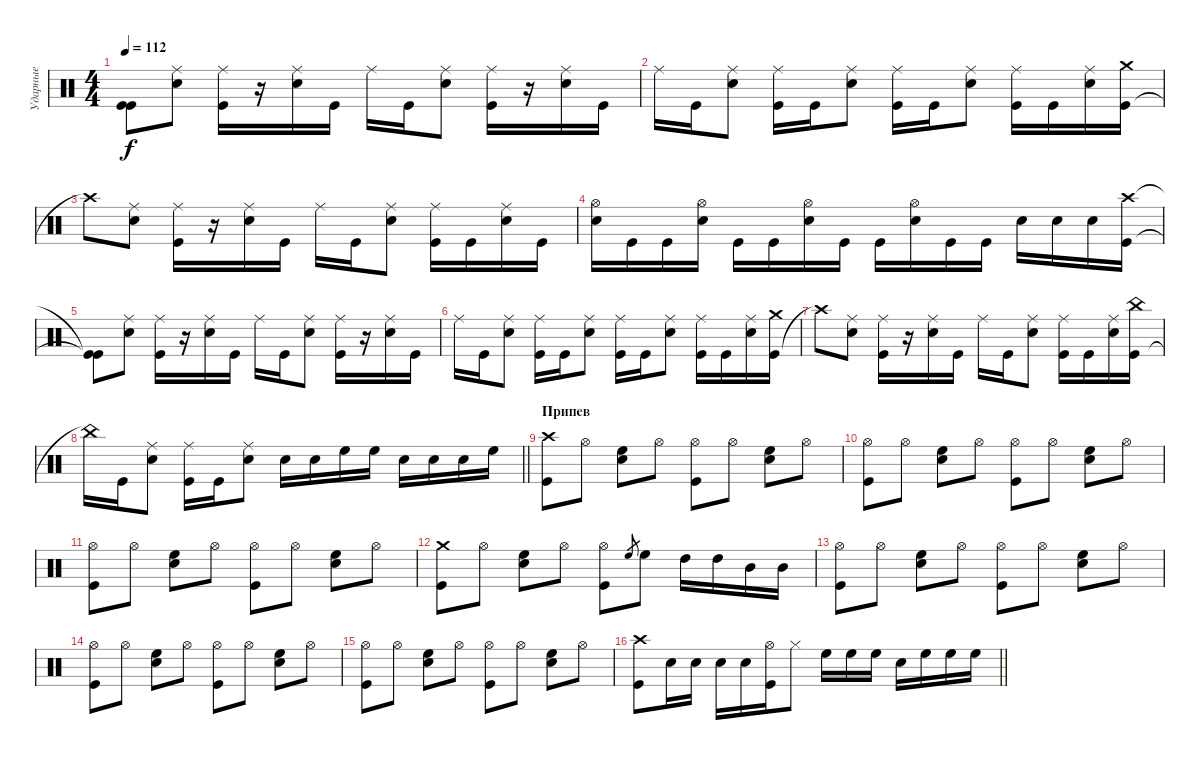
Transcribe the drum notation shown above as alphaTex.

\track ("Ударные" "Ударные") {instrument percussion}
\staff {score}
\articulation defaults
\ts (4 4)
\tempo 112
\clef neutral
\ks aminor
("Kick (hit)"{t} "Kick (hit)"{t}).8{dy f} ("Electric Snare (hit)" "Ride (middle)").8 ("Kick (hit)" "Ride (middle)").16 r.16 ("Electric Snare (hit)" "Ride (middle)").16 "Kick (hit)".16 "Ride (middle)".16 "Kick (hit)".16 ("Electric Snare (hit)" "Ride (middle)").8 ("Kick (hit)" "Ride (middle)").16 r.16 ("Electric Snare (hit)" "Ride (middle)").16 "Kick (hit)".16 |
"Ride (middle)".16 "Kick (hit)".16 ("Electric Snare (hit)" "Ride (middle)").8 ("Kick (hit)" "Ride (middle)").16 "Kick (hit)".16 ("Electric Snare (hit)" "Ride (middle)").8 ("Kick (hit)" "Ride (middle)").16 "Kick (hit)".16 ("Electric Snare (hit)" "Ride (middle)").8 ("Kick (hit)" "Ride (middle)").16 "Kick (hit)".16 ("Electric Snare (hit)" "Ride (middle)").16 ("Kick (hit)" "Crash medium (hit)").16 |
"Crash high (hit)"{t}.8 ("Electric Snare (hit)" "Ride (middle)").8 ("Kick (hit)" "Ride (middle)").16 r.16 ("Electric Snare (hit)" "Ride (middle)").16 "Kick (hit)".16 "Ride (middle)".16 "Kick (hit)".16 ("Electric Snare (hit)" "Ride (middle)").8 ("Kick (hit)" "Ride (middle)").16 "Kick (hit)".16 ("Electric Snare (hit)" "Ride (middle)").16 "Kick (hit)".16 |
("Electric Snare (hit)" "Hi-Hat (open)").16 "Kick (hit)".16 "Kick (hit)".16 ("Electric Snare (hit)" "Hi-Hat (open)").16 "Kick (hit)".16 "Kick (hit)".16 ("Electric Snare (hit)" "Hi-Hat (open)").16 "Kick (hit)".16 "Kick (hit)".16 ("Electric Snare (hit)" "Hi-Hat (open)").16 "Kick (hit)".16 "Kick (hit)".16 "Electric Snare (hit)".16 "Electric Snare (hit)".16 "Electric Snare (hit)".16 ("Kick (hit)" "Crash high (hit)").16 |
("Kick (hit)"{t} "Kick (hit)"{t}).8 ("Electric Snare (hit)" "Ride (middle)").8 ("Kick (hit)" "Ride (middle)").16 r.16 ("Electric Snare (hit)" "Ride (middle)").16 "Kick (hit)".16 "Ride (middle)".16 "Kick (hit)".16 ("Electric Snare (hit)" "Ride (middle)").8 ("Kick (hit)" "Ride (middle)").16 r.16 ("Electric Snare (hit)" "Ride (middle)").16 "Kick (hit)".16 |
"Ride (middle)".16 "Kick (hit)".16 ("Electric Snare (hit)" "Ride (middle)").8 ("Kick (hit)" "Ride (middle)").16 "Kick (hit)".16 ("Electric Snare (hit)" "Ride (middle)").8 ("Kick (hit)" "Ride (middle)").16 "Kick (hit)".16 ("Electric Snare (hit)" "Ride (middle)").8 ("Kick (hit)" "Ride (middle)").16 "Kick (hit)".16 ("Electric Snare (hit)" "Ride (middle)").16 ("Kick (hit)" "Crash medium (hit)").16 |
"Crash high (hit)"{t}.8 ("Electric Snare (hit)" "Ride (middle)").8 ("Kick (hit)" "Ride (middle)").16 r.16 ("Electric Snare (hit)" "Ride (middle)").16 "Kick (hit)".16 "Ride (middle)".16 "Kick (hit)".16 ("Electric Snare (hit)" "Ride (middle)").8 ("Kick (hit)" "Ride (middle)").16 "Kick (hit)".16 ("Electric Snare (hit)" "Ride (middle)").16 ("Kick (hit)" "China (hit)").16 |
\barLineRight lightlight "China (hit)"{t}.16 "Kick (hit)".16
("Electric Snare (hit)" "Ride (middle)").8 ("Kick (hit)" "Ride (middle)").16 "Kick (hit)".16 ("Electric Snare (hit)" "Ride (middle)").8 "Electric Snare (hit)".16 "Electric Snare (hit)".16 "High Floor Tom (hit)".16 "High Floor Tom (hit)".16 "Electric Snare (hit)".16 "Electric Snare (hit)".16 "Electric Snare (hit)".16 "High Floor Tom (hit)".16 |
\section ("" "Припев")
("Kick (hit)" "Crash high (hit)").8 "Hi-Hat (open)".8 ("High Floor Tom (hit)" "Electric Snare (hit)").8 "Hi-Hat (open)".8 ("Kick (hit)" "Hi-Hat (open)").8 "Hi-Hat (open)".8 ("High Floor Tom (hit)" "Electric Snare (hit)").8 "Hi-Hat (open)".8 |
("Kick (hit)" "Hi-Hat (open)").8 "Hi-Hat (open)".8 ("High Floor Tom (hit)" "Electric Snare (hit)").8 "Hi-Hat (open)".8 ("Kick (hit)" "Hi-Hat (open)").8 "Hi-Hat (open)".8 ("High Floor Tom (hit)" "Electric Snare (hit)").8 "Hi-Hat (open)".8 |
("Kick (hit)" "Hi-Hat (open)").8 "Hi-Hat (open)".8 ("High Floor Tom (hit)" "Electric Snare (hit)").8 "Hi-Hat (open)".8 ("Kick (hit)" "Hi-Hat (open)").8 "Hi-Hat (open)".8 ("High Floor Tom (hit)" "Electric Snare (hit)").8 "Hi-Hat (open)".8 |
("Kick (hit)" "Crash medium (hit)").8 "Hi-Hat (open)".8 ("High Floor Tom (hit)" "Electric Snare (hit)").8 "Hi-Hat (open)".8 ("Kick (hit)" "Hi-Hat (open)").8 "High Floor Tom (hit)".8{gr} "High Floor Tom (hit)".8 "High Tom (hit)".16 "High Tom (hit)".16 "Mid Tom (hit)".16 "Mid Tom (hit)".16 |
("Kick (hit)" "Hi-Hat (open)").8 "Hi-Hat (open)".8 ("High Floor Tom (hit)" "Electric Snare (hit)").8 "Hi-Hat (open)".8 ("Kick (hit)" "Hi-Hat (open)").8 "Hi-Hat (open)".8 ("High Floor Tom (hit)" "Electric Snare (hit)").8 "Hi-Hat (open)".8 |
("Kick (hit)" "Hi-Hat (open)").8 "Hi-Hat (open)".8 ("High Floor Tom (hit)" "Electric Snare (hit)").8 "Hi-Hat (open)".8 ("Kick (hit)" "Hi-Hat (open)").8 "Hi-Hat (open)".8 ("High Floor Tom (hit)" "Electric Snare (hit)").8 "Hi-Hat (open)".8 |
("Kick (hit)" "Hi-Hat (open)").8 "Hi-Hat (open)".8 ("High Floor Tom (hit)" "Electric Snare (hit)").8 "Hi-Hat (open)".8 ("Kick (hit)" "Hi-Hat (open)").8 "Hi-Hat (open)".8 ("High Floor Tom (hit)" "Electric Snare (hit)").8 "Hi-Hat (open)".8 |
\barLineRight lightlight
("Kick (hit)" "Crash high (hit)").8 "Electric Snare (hit)".16 "Electric Snare (hit)".16 "Electric Snare (hit)".16 "Electric Snare (hit)".16 ("Kick (hit)" "Hi-Hat (open)").16 "Hi-Hat (closed)".8 "High Floor Tom (hit)".16 "High Floor Tom (hit)".16 "High Floor Tom (hit)".16 "Electric Snare (hit)".16 "High Floor Tom (hit)".16 "High Floor Tom (hit)".16 "High Floor Tom (hit)".16
